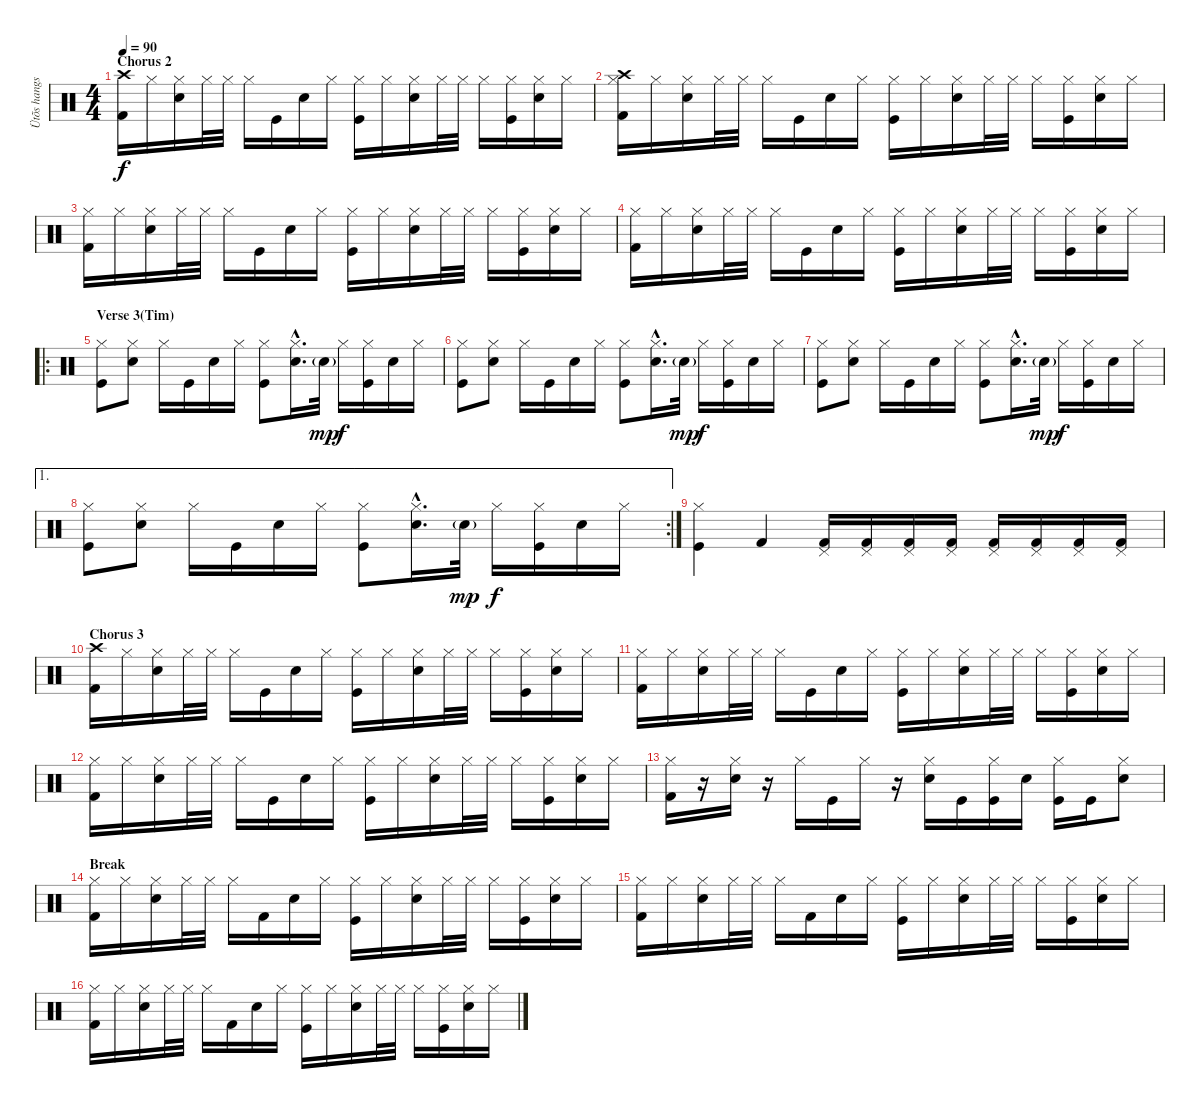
\track ("Ütõs hangszer" "Ütõs hangs") {instrument percussion}
\staff {score}
\articulation defaults
\ts (4 4)
\section ("" "Chorus 2")
\tempo 90
\clef neutral
\ks c
("Crash high (hit)" "Kick (hit) 2").16{dy f} "Hi-Hat (closed)".16 ("Hi-Hat (closed)" "Electric Snare (hit)").16 "Hi-Hat (closed)".32 "Hi-Hat (closed)".32 "Hi-Hat (closed)".16 "Kick (hit)".16 "Electric Snare (hit)".16 "Hi-Hat (closed)".16 ("Hi-Hat (closed)" "Kick (hit)").16 "Hi-Hat (closed)".16 ("Hi-Hat (closed)" "Electric Snare (hit)").16 "Hi-Hat (closed)".32 "Hi-Hat (closed)".32 "Hi-Hat (closed)".16 ("Hi-Hat (closed)" "Kick (hit)").16 ("Hi-Hat (closed)" "Electric Snare (hit)").16 "Hi-Hat (closed)".16 |
("Crash high (hit)" "Hi-Hat (closed)" "Kick (hit) 2").16 "Hi-Hat (closed)".16 ("Hi-Hat (closed)" "Electric Snare (hit)").16 "Hi-Hat (closed)".32 "Hi-Hat (closed)".32 "Hi-Hat (closed)".16 "Kick (hit)".16 "Electric Snare (hit)".16 "Hi-Hat (closed)".16 ("Hi-Hat (closed)" "Kick (hit)").16 "Hi-Hat (closed)".16 ("Hi-Hat (closed)" "Electric Snare (hit)").16 "Hi-Hat (closed)".32 "Hi-Hat (closed)".32 "Hi-Hat (closed)".16 ("Hi-Hat (closed)" "Kick (hit)").16 ("Hi-Hat (closed)" "Electric Snare (hit)").16 "Hi-Hat (closed)".16 |
("Hi-Hat (closed)" "Kick (hit) 2").16 "Hi-Hat (closed)".16 ("Hi-Hat (closed)" "Electric Snare (hit)").16 "Hi-Hat (closed)".32 "Hi-Hat (closed)".32 "Hi-Hat (closed)".16 "Kick (hit)".16 "Electric Snare (hit)".16 "Hi-Hat (closed)".16 ("Hi-Hat (closed)" "Kick (hit)").16 "Hi-Hat (closed)".16 ("Hi-Hat (closed)" "Electric Snare (hit)").16 "Hi-Hat (closed)".32 "Hi-Hat (closed)".32 "Hi-Hat (closed)".16 ("Hi-Hat (closed)" "Kick (hit)").16 ("Hi-Hat (closed)" "Electric Snare (hit)").16 "Hi-Hat (closed)".16 |
("Hi-Hat (closed)" "Kick (hit) 2").16 "Hi-Hat (closed)".16 ("Hi-Hat (closed)" "Electric Snare (hit)").16 "Hi-Hat (closed)".32 "Hi-Hat (closed)".32 "Hi-Hat (closed)".16 "Kick (hit)".16 "Electric Snare (hit)".16 "Hi-Hat (closed)".16 ("Hi-Hat (closed)" "Kick (hit)").16 "Hi-Hat (closed)".16 ("Hi-Hat (closed)" "Electric Snare (hit)").16 "Hi-Hat (closed)".32 "Hi-Hat (closed)".32 "Hi-Hat (closed)".16 ("Hi-Hat (closed)" "Kick (hit)").16 ("Hi-Hat (closed)" "Electric Snare (hit)").16 "Hi-Hat (closed)".16 |
\ro
\section ("" "Verse 3(Tim) ")
("Hi-Hat (closed)" "Kick (hit)").8 ("Hi-Hat (closed)" "Electric Snare (hit)").8 "Hi-Hat (closed)".16 "Kick (hit)".16 "Electric Snare (hit)".16 "Hi-Hat (closed)".16 ("Hi-Hat (closed)" "Kick (hit)").8 ("Hi-Hat (closed)"{hac} "Electric Snare (hit)"{hac}).16{d} "Electric Snare (hit)"{g}.32{dy mp} "Hi-Hat (closed)".16{dy f} ("Hi-Hat (closed)" "Kick (hit)").16 "Electric Snare (hit)".16 "Hi-Hat (closed)".16 |
("Hi-Hat (closed)" "Kick (hit)").8 ("Hi-Hat (closed)" "Electric Snare (hit)").8 "Hi-Hat (closed)".16 "Kick (hit)".16 "Electric Snare (hit)".16 "Hi-Hat (closed)".16 ("Hi-Hat (closed)" "Kick (hit)").8 ("Hi-Hat (closed)"{hac} "Electric Snare (hit)"{hac}).16{d} "Electric Snare (hit)"{g}.32{dy mp} "Hi-Hat (closed)".16{dy f} ("Hi-Hat (closed)" "Kick (hit)").16 "Electric Snare (hit)".16 "Hi-Hat (closed)".16 |
("Hi-Hat (closed)" "Kick (hit)").8 ("Hi-Hat (closed)" "Electric Snare (hit)").8 "Hi-Hat (closed)".16 "Kick (hit)".16 "Electric Snare (hit)".16 "Hi-Hat (closed)".16 ("Hi-Hat (closed)" "Kick (hit)").8 ("Hi-Hat (closed)"{hac} "Electric Snare (hit)"{hac}).16{d} "Electric Snare (hit)"{g}.32{dy mp} "Hi-Hat (closed)".16{dy f} ("Hi-Hat (closed)" "Kick (hit)").16 "Electric Snare (hit)".16 "Hi-Hat (closed)".16 |
\ae 1
\rc 2
("Hi-Hat (closed)" "Kick (hit)").8 ("Hi-Hat (closed)" "Electric Snare (hit)").8 "Hi-Hat (closed)".16 "Kick (hit)".16 "Electric Snare (hit)".16 "Hi-Hat (closed)".16 ("Hi-Hat (closed)" "Kick (hit)").8 ("Hi-Hat (closed)"{hac} "Electric Snare (hit)"{hac}).16{d} "Electric Snare (hit)"{g}.32{dy mp} "Hi-Hat (closed)".16{dy f} ("Hi-Hat (closed)" "Kick (hit)").16 "Electric Snare (hit)".16 "Hi-Hat (closed)".16 |
("Hi-Hat (closed)" "Kick (hit)").4 "Kick (hit) 2".4 ("Pedal Hi-Hat (hit)" "Kick (hit) 2").16 ("Pedal Hi-Hat (hit)" "Kick (hit) 2").16 ("Pedal Hi-Hat (hit)" "Kick (hit) 2").16 ("Pedal Hi-Hat (hit)" "Kick (hit) 2").16 ("Pedal Hi-Hat (hit)" "Kick (hit) 2").16 ("Pedal Hi-Hat (hit)" "Kick (hit) 2").16 ("Pedal Hi-Hat (hit)" "Kick (hit) 2").16 ("Pedal Hi-Hat (hit)" "Kick (hit) 2").16 |
\section ("" "Chorus 3")
("Crash high (hit)" "Kick (hit) 2").16 "Hi-Hat (closed)".16 ("Hi-Hat (closed)" "Electric Snare (hit)").16 "Hi-Hat (closed)".32 "Hi-Hat (closed)".32 "Hi-Hat (closed)".16 "Kick (hit)".16 "Electric Snare (hit)".16 "Hi-Hat (closed)".16 ("Hi-Hat (closed)" "Kick (hit)").16 "Hi-Hat (closed)".16 ("Hi-Hat (closed)" "Electric Snare (hit)").16 "Hi-Hat (closed)".32 "Hi-Hat (closed)".32 "Hi-Hat (closed)".16 ("Hi-Hat (closed)" "Kick (hit)").16 ("Hi-Hat (closed)" "Electric Snare (hit)").16 "Hi-Hat (closed)".16 |
("Hi-Hat (closed)" "Kick (hit) 2").16 "Hi-Hat (closed)".16 ("Hi-Hat (closed)" "Electric Snare (hit)").16 "Hi-Hat (closed)".32 "Hi-Hat (closed)".32 "Hi-Hat (closed)".16 "Kick (hit)".16 "Electric Snare (hit)".16 "Hi-Hat (closed)".16 ("Hi-Hat (closed)" "Kick (hit)").16 "Hi-Hat (closed)".16 ("Hi-Hat (closed)" "Electric Snare (hit)").16 "Hi-Hat (closed)".32 "Hi-Hat (closed)".32 "Hi-Hat (closed)".16 ("Hi-Hat (closed)" "Kick (hit)").16 ("Hi-Hat (closed)" "Electric Snare (hit)").16 "Hi-Hat (closed)".16 |
("Hi-Hat (closed)" "Kick (hit) 2").16 "Hi-Hat (closed)".16 ("Hi-Hat (closed)" "Electric Snare (hit)").16 "Hi-Hat (closed)".32 "Hi-Hat (closed)".32 "Hi-Hat (closed)".16 "Kick (hit)".16 "Electric Snare (hit)".16 "Hi-Hat (closed)".16 ("Hi-Hat (closed)" "Kick (hit)").16 "Hi-Hat (closed)".16 ("Hi-Hat (closed)" "Electric Snare (hit)").16 "Hi-Hat (closed)".32 "Hi-Hat (closed)".32 "Hi-Hat (closed)".16 ("Hi-Hat (closed)" "Kick (hit)").16 ("Hi-Hat (closed)" "Electric Snare (hit)").16 "Hi-Hat (closed)".16 |
("Hi-Hat (closed)" "Kick (hit) 2").16 r.16 ("Hi-Hat (closed)" "Electric Snare (hit)").16 r.16 "Hi-Hat (closed)".16 "Kick (hit)".16 "Hi-Hat (closed)".16 r.16 ("Hi-Hat (closed)" "Electric Snare (hit)").16 "Kick (hit)".16 ("Hi-Hat (closed)" "Kick (hit)").16 "Electric Snare (hit)".16 ("Hi-Hat (closed)" "Kick (hit)").16 "Kick (hit)".16 ("Hi-Hat (closed)" "Electric Snare (hit)").8 |
\section ("" "Break")
("Hi-Hat (closed)" "Kick (hit) 2").16 "Hi-Hat (closed)".16 ("Hi-Hat (closed)" "Electric Snare (hit)").16 "Hi-Hat (closed)".32 "Hi-Hat (closed)".32 "Hi-Hat (closed)".16 "Kick (hit) 2".16 "Electric Snare (hit)".16 "Hi-Hat (closed)".16 ("Hi-Hat (closed)" "Kick (hit)").16 "Hi-Hat (closed)".16 ("Hi-Hat (closed)" "Electric Snare (hit)").16 "Hi-Hat (closed)".32 "Hi-Hat (closed)".32 "Hi-Hat (closed)".16 ("Hi-Hat (closed)" "Kick (hit)").16 ("Hi-Hat (closed)" "Electric Snare (hit)").16 "Hi-Hat (closed)".16 |
("Hi-Hat (closed)" "Kick (hit) 2").16 "Hi-Hat (closed)".16 ("Hi-Hat (closed)" "Electric Snare (hit)").16 "Hi-Hat (closed)".32 "Hi-Hat (closed)".32 "Hi-Hat (closed)".16 "Kick (hit) 2".16 "Electric Snare (hit)".16 "Hi-Hat (closed)".16 ("Hi-Hat (closed)" "Kick (hit)").16 "Hi-Hat (closed)".16 ("Hi-Hat (closed)" "Electric Snare (hit)").16 "Hi-Hat (closed)".32 "Hi-Hat (closed)".32 "Hi-Hat (closed)".16 ("Hi-Hat (closed)" "Kick (hit)").16 ("Hi-Hat (closed)" "Electric Snare (hit)").16 "Hi-Hat (closed)".16 |
("Hi-Hat (closed)" "Kick (hit) 2").16 "Hi-Hat (closed)".16 ("Hi-Hat (closed)" "Electric Snare (hit)").16 "Hi-Hat (closed)".32 "Hi-Hat (closed)".32 "Hi-Hat (closed)".16 "Kick (hit) 2".16 "Electric Snare (hit)".16 "Hi-Hat (closed)".16 ("Hi-Hat (closed)" "Kick (hit)").16 "Hi-Hat (closed)".16 ("Hi-Hat (closed)" "Electric Snare (hit)").16 "Hi-Hat (closed)".32 "Hi-Hat (closed)".32 "Hi-Hat (closed)".16 ("Hi-Hat (closed)" "Kick (hit)").16 ("Hi-Hat (closed)" "Electric Snare (hit)").16 "Hi-Hat (closed)".16
